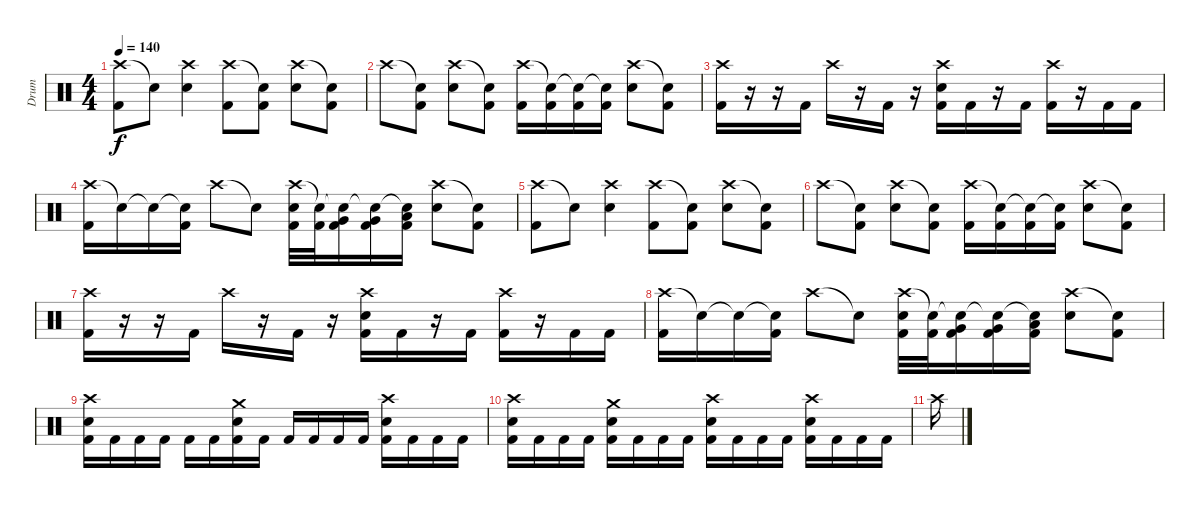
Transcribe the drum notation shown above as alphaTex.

\track ("Drum" "Drum") {instrument percussion}
\staff {score}
\articulation defaults
\ts (4 4)
\tempo 140
\clef neutral
\ks c
("Crash high (hit)" "Kick (hit) 2").8{dy f} "Snare (hit)"{t}.8 ("Crash high (hit)" "Electric Snare (hit)").4 ("Crash high (hit)" "Kick (hit) 2").8 ("Snare (hit)"{t} "Kick (hit) 2").8 ("Crash high (hit)" "Electric Snare (hit)").8 ("Snare (hit)"{t} "Kick (hit) 2").8 |
"Crash high (hit)".8 ("Snare (hit)"{t} "Kick (hit) 2").8 ("Crash high (hit)" "Electric Snare (hit)").8 ("Snare (hit)"{t} "Kick (hit) 2").8 ("Crash high (hit)" "Kick (hit) 2").16 ("Snare (hit)"{t} "Kick (hit) 2").16 ("Snare (hit)"{t} "Kick (hit) 2").16 ("Snare (hit)"{t} "Kick (hit) 2").16 ("Crash high (hit)" "Electric Snare (hit)").8 ("Snare (hit)"{t} "Kick (hit) 2").8 |
("Crash high (hit)" "Kick (hit) 2").16 r.16 r.16 "Kick (hit) 2".16 "Crash high (hit)".16 r.16 "Kick (hit) 2".16 r.16 ("Crash high (hit)" "Electric Snare (hit)" "Kick (hit) 2").16 "Kick (hit) 2".16 r.16 "Kick (hit) 2".16 ("Crash high (hit)" "Kick (hit) 2").16 r.16 "Kick (hit) 2".16 "Kick (hit) 2".16 |
("Crash high (hit)" "Kick (hit) 2").16 "Snare (hit)"{t}.16 "Snare (hit)"{t}.16 ("Snare (hit)"{t} "Kick (hit) 2").16 "Crash high (hit)".8 "Snare (hit)"{t}.8 ("Crash high (hit)" "Electric Snare (hit)" "Kick (hit) 2").32 ("Snare (hit)"{t} "Kick (hit) 2").32 ("Snare (hit)"{t} "Very Low Tom (hit)" "Kick (hit) 2").16 ("Snare (hit)"{t} "Very Low Tom (hit)" "Kick (hit) 2").16 ("Snare (hit)"{t} "Low Floor Tom (hit)" "Kick (hit) 2").16 ("Crash high (hit)" "Electric Snare (hit)").8 ("Snare (hit)"{t} "Kick (hit) 2").8 |
("Crash high (hit)" "Kick (hit) 2").8 "Snare (hit)"{t}.8 ("Crash high (hit)" "Electric Snare (hit)").4 ("Crash high (hit)" "Kick (hit) 2").8 ("Snare (hit)"{t} "Kick (hit) 2").8 ("Crash high (hit)" "Electric Snare (hit)").8 ("Snare (hit)"{t} "Kick (hit) 2").8 |
"Crash high (hit)".8 ("Snare (hit)"{t} "Kick (hit) 2").8 ("Crash high (hit)" "Electric Snare (hit)").8 ("Snare (hit)"{t} "Kick (hit) 2").8 ("Crash high (hit)" "Kick (hit) 2").16 ("Snare (hit)"{t} "Kick (hit) 2").16 ("Snare (hit)"{t} "Kick (hit) 2").16 ("Snare (hit)"{t} "Kick (hit) 2").16 ("Crash high (hit)" "Electric Snare (hit)").8 ("Snare (hit)"{t} "Kick (hit) 2").8 |
("Crash high (hit)" "Kick (hit) 2").16 r.16 r.16 "Kick (hit) 2".16 "Crash high (hit)".16 r.16 "Kick (hit) 2".16 r.16 ("Crash high (hit)" "Electric Snare (hit)" "Kick (hit) 2").16 "Kick (hit) 2".16 r.16 "Kick (hit) 2".16 ("Crash high (hit)" "Kick (hit) 2").16 r.16 "Kick (hit) 2".16 "Kick (hit) 2".16 |
("Crash high (hit)" "Kick (hit) 2").16 "Snare (hit)"{t}.16 "Snare (hit)"{t}.16 ("Snare (hit)"{t} "Kick (hit) 2").16 "Crash high (hit)".8 "Snare (hit)"{t}.8 ("Crash high (hit)" "Electric Snare (hit)" "Kick (hit) 2").32 ("Snare (hit)"{t} "Kick (hit) 2").32 ("Snare (hit)"{t} "Very Low Tom (hit)" "Kick (hit) 2").16 ("Snare (hit)"{t} "Very Low Tom (hit)" "Kick (hit) 2").16 ("Snare (hit)"{t} "Low Floor Tom (hit)" "Kick (hit) 2").16 ("Crash high (hit)" "Electric Snare (hit)").8 ("Snare (hit)"{t} "Kick (hit) 2").8 |
("Crash high (hit)" "Electric Snare (hit)" "Kick (hit) 2").16 "Kick (hit) 2".16 "Kick (hit) 2".16 "Kick (hit) 2".16 "Kick (hit) 2".16 "Kick (hit) 2".16 ("Crash medium (hit)" "Electric Snare (hit)" "Kick (hit) 2").16 "Kick (hit) 2".16 "Kick (hit) 2".16 "Kick (hit) 2".16 "Kick (hit) 2".16 "Kick (hit) 2".16 ("Crash high (hit)" "Electric Snare (hit)" "Kick (hit) 2").16 "Kick (hit) 2".16 "Kick (hit) 2".16 "Kick (hit) 2".16 |
("Crash high (hit)" "Electric Snare (hit)" "Kick (hit) 2").16 "Kick (hit) 2".16 "Kick (hit) 2".16 "Kick (hit) 2".16 ("Crash medium (hit)" "Electric Snare (hit)" "Kick (hit) 2").16 "Kick (hit) 2".16 "Kick (hit) 2".16 "Kick (hit) 2".16 ("Crash high (hit)" "Electric Snare (hit)" "Kick (hit) 2").16 "Kick (hit) 2".16 "Kick (hit) 2".16 "Kick (hit) 2".16 ("Crash high (hit)" "Electric Snare (hit)" "Kick (hit) 2").16 "Kick (hit) 2".16 "Kick (hit) 2".16 "Kick (hit) 2".16 |
"Crash high (hit)".16
